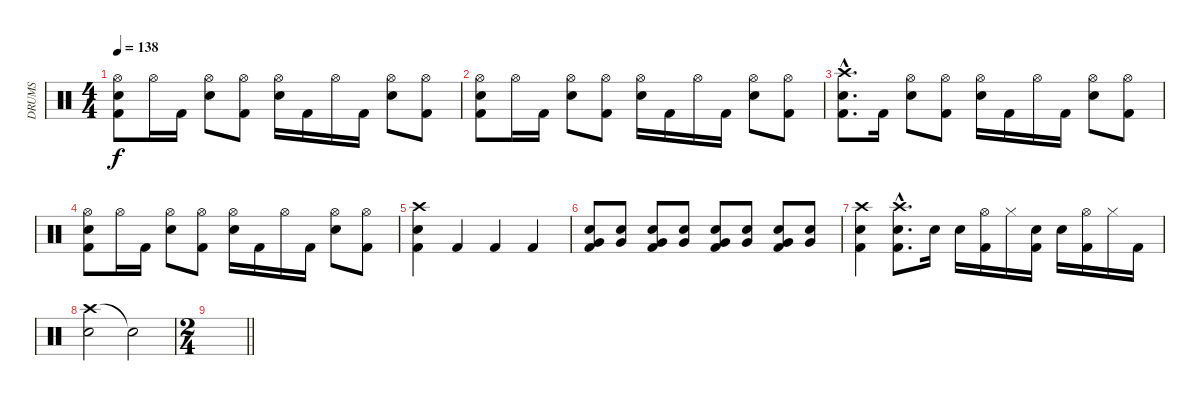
\track ("DRUMS" "DRUMS") {instrument percussion}
\staff {score}
\articulation defaults
\ts (4 4)
\tempo 138
\clef neutral
\ks c
("Hi-Hat (open)" "Snare (hit) 2" "Kick (hit) 2").8{dy f} "Hi-Hat (open)".16 "Kick (hit) 2".16 ("Hi-Hat (open)" "Snare (hit) 2").8 ("Hi-Hat (open)" "Kick (hit) 2").8 ("Hi-Hat (open)" "Snare (hit) 2").16 "Kick (hit) 2".16 "Hi-Hat (open)".16 "Kick (hit) 2".16 ("Hi-Hat (open)" "Snare (hit) 2").8 ("Hi-Hat (open)" "Kick (hit) 2").8 |
("Hi-Hat (open)" "Snare (hit) 2" "Kick (hit) 2").8 "Hi-Hat (open)".16 "Kick (hit) 2".16 ("Hi-Hat (open)" "Snare (hit) 2").8 ("Hi-Hat (open)" "Kick (hit) 2").8 ("Hi-Hat (open)" "Snare (hit) 2").16 "Kick (hit) 2".16 "Hi-Hat (open)".16 "Kick (hit) 2".16 ("Hi-Hat (open)" "Snare (hit) 2").8 ("Hi-Hat (open)" "Kick (hit) 2").8 |
("Crash high (hit)"{hac} "Snare (hit) 2"{hac} "Kick (hit) 2"{hac}).8{d} "Kick (hit) 2".16 ("Hi-Hat (open)" "Snare (hit) 2").8 ("Hi-Hat (open)" "Kick (hit) 2").8 ("Hi-Hat (open)" "Snare (hit) 2").16 "Kick (hit) 2".16 "Hi-Hat (open)".16 "Kick (hit) 2".16 ("Hi-Hat (open)" "Snare (hit) 2").8 ("Hi-Hat (open)" "Kick (hit) 2").8 |
("Hi-Hat (open)" "Snare (hit) 2" "Kick (hit) 2").8 "Hi-Hat (open)".16 "Kick (hit) 2".16 ("Hi-Hat (open)" "Snare (hit) 2").8 ("Hi-Hat (open)" "Kick (hit) 2").8 ("Hi-Hat (open)" "Snare (hit) 2").16 "Kick (hit) 2".16 "Hi-Hat (open)".16 "Kick (hit) 2".16 ("Hi-Hat (open)" "Snare (hit) 2").8 ("Hi-Hat (open)" "Kick (hit) 2").8 |
("Crash high (hit)" "Snare (hit) 2" "Kick (hit) 2").4 "Kick (hit) 2".4 "Kick (hit) 2".4 "Kick (hit) 2".4 |
("Very Low Tom (hit)" "Snare (hit) 2" "Kick (hit) 2").8 ("Very Low Tom (hit)" "Snare (hit) 2").8 ("Very Low Tom (hit)" "Snare (hit) 2" "Kick (hit) 2").8 ("Very Low Tom (hit)" "Snare (hit) 2").8 ("Very Low Tom (hit)" "Snare (hit) 2" "Kick (hit) 2").8 ("Very Low Tom (hit)" "Snare (hit) 2").8 ("Very Low Tom (hit)" "Snare (hit) 2" "Kick (hit) 2").8 ("Very Low Tom (hit)" "Snare (hit) 2").8 |
("Crash high (hit)" "Snare (hit) 2" "Kick (hit) 2").4 ("Crash high (hit)"{hac} "Snare (hit) 2"{hac} "Kick (hit) 2"{hac}).8{d} "Snare (hit) 2".16 "Snare (hit) 2".16 ("Hi-Hat (open)" "Kick (hit) 2").16 "Hi-Hat (closed)".16 ("Snare (hit) 2" "Kick (hit) 2").16 "Snare (hit) 2".16 ("Hi-Hat (open)" "Kick (hit) 2").16 "Hi-Hat (closed)".16 "Kick (hit) 2".16 |
("Crash high (hit)" "Snare (hit) 2").2 "Snare (hit)"{t}.2 |
\ts (2 4)
\barLineRight lightlight
